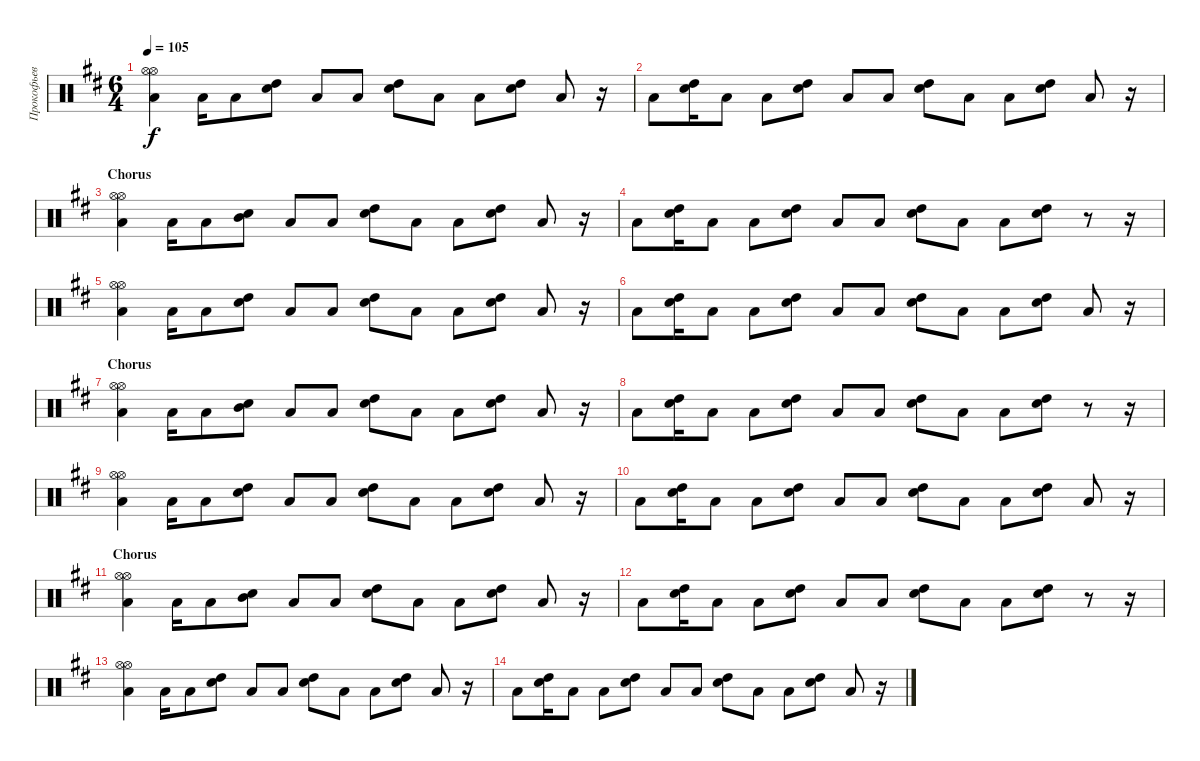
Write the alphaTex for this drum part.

\track ("Прокофьев" "Прокофьев") {instrument percussion}
\staff {score}
\articulation defaults
\ts (6 4)
\tempo 105
\clef neutral
\ks d
("Low Tom (hit)" "Hi-Hat (open)" "Hi-Hat (open)").4{dy f} "Low Tom (hit)".16 "Low Tom (hit)".8 ("High Tom (hit)" "Snare (hit) 2").8 "Low Tom (hit)".8 "Low Tom (hit)".8 ("High Tom (hit)" "Snare (hit) 2").8 "Low Tom (hit)".8 "Low Tom (hit)".8 ("High Tom (hit)" "Snare (hit) 2").8 "Low Tom (hit)".8 r.16 |
"Low Tom (hit)".8 ("High Tom (hit)" "Snare (hit) 2").16 "Low Tom (hit)".8 "Low Tom (hit)".8 ("High Tom (hit)" "Snare (hit) 2").8 "Low Tom (hit)".8 "Low Tom (hit)".8 ("High Tom (hit)" "Snare (hit) 2").8 "Low Tom (hit)".8 "Low Tom (hit)".8 ("High Tom (hit)" "Snare (hit) 2").8 "Low Tom (hit)".8 r.16 |
\section ("" "Chorus")
("Low Tom (hit)" "Hi-Hat (open)" "Hi-Hat (open)").4 "Low Tom (hit)".16 "Low Tom (hit)".8 ("Mid Tom (hit)" "Snare (hit) 2").8 "Low Tom (hit)".8 "Low Tom (hit)".8 ("High Tom (hit)" "Snare (hit) 2").8 "Low Tom (hit)".8 "Low Tom (hit)".8 ("High Tom (hit)" "Snare (hit) 2").8 "Low Tom (hit)".8 r.16 |
"Low Tom (hit)".8 ("High Tom (hit)" "Snare (hit) 2").16 "Low Tom (hit)".8 "Low Tom (hit)".8 ("High Tom (hit)" "Snare (hit) 2").8 "Low Tom (hit)".8 "Low Tom (hit)".8 ("High Tom (hit)" "Snare (hit) 2").8 "Low Tom (hit)".8 "Low Tom (hit)".8 ("High Tom (hit)" "Snare (hit) 2").8 r.8 r.16 |
("Low Tom (hit)" "Hi-Hat (open)" "Hi-Hat (open)").4 "Low Tom (hit)".16 "Low Tom (hit)".8 ("High Tom (hit)" "Snare (hit) 2").8 "Low Tom (hit)".8 "Low Tom (hit)".8 ("High Tom (hit)" "Snare (hit) 2").8 "Low Tom (hit)".8 "Low Tom (hit)".8 ("High Tom (hit)" "Snare (hit) 2").8 "Low Tom (hit)".8 r.16 |
"Low Tom (hit)".8 ("High Tom (hit)" "Snare (hit) 2").16 "Low Tom (hit)".8 "Low Tom (hit)".8 ("High Tom (hit)" "Snare (hit) 2").8 "Low Tom (hit)".8 "Low Tom (hit)".8 ("High Tom (hit)" "Snare (hit) 2").8 "Low Tom (hit)".8 "Low Tom (hit)".8 ("High Tom (hit)" "Snare (hit) 2").8 "Low Tom (hit)".8 r.16 |
\section ("" "Chorus")
("Low Tom (hit)" "Hi-Hat (open)" "Hi-Hat (open)").4 "Low Tom (hit)".16 "Low Tom (hit)".8 ("Mid Tom (hit)" "Snare (hit) 2").8 "Low Tom (hit)".8 "Low Tom (hit)".8 ("High Tom (hit)" "Snare (hit) 2").8 "Low Tom (hit)".8 "Low Tom (hit)".8 ("High Tom (hit)" "Snare (hit) 2").8 "Low Tom (hit)".8 r.16 |
"Low Tom (hit)".8 ("High Tom (hit)" "Snare (hit) 2").16 "Low Tom (hit)".8 "Low Tom (hit)".8 ("High Tom (hit)" "Snare (hit) 2").8 "Low Tom (hit)".8 "Low Tom (hit)".8 ("High Tom (hit)" "Snare (hit) 2").8 "Low Tom (hit)".8 "Low Tom (hit)".8 ("High Tom (hit)" "Snare (hit) 2").8 r.8 r.16 |
("Low Tom (hit)" "Hi-Hat (open)" "Hi-Hat (open)").4 "Low Tom (hit)".16 "Low Tom (hit)".8 ("High Tom (hit)" "Snare (hit) 2").8 "Low Tom (hit)".8 "Low Tom (hit)".8 ("High Tom (hit)" "Snare (hit) 2").8 "Low Tom (hit)".8 "Low Tom (hit)".8 ("High Tom (hit)" "Snare (hit) 2").8 "Low Tom (hit)".8 r.16 |
"Low Tom (hit)".8 ("High Tom (hit)" "Snare (hit) 2").16 "Low Tom (hit)".8 "Low Tom (hit)".8 ("High Tom (hit)" "Snare (hit) 2").8 "Low Tom (hit)".8 "Low Tom (hit)".8 ("High Tom (hit)" "Snare (hit) 2").8 "Low Tom (hit)".8 "Low Tom (hit)".8 ("High Tom (hit)" "Snare (hit) 2").8 "Low Tom (hit)".8 r.16 |
\section ("" "Chorus")
("Low Tom (hit)" "Hi-Hat (open)" "Hi-Hat (open)").4 "Low Tom (hit)".16 "Low Tom (hit)".8 ("Mid Tom (hit)" "Snare (hit) 2").8 "Low Tom (hit)".8 "Low Tom (hit)".8 ("High Tom (hit)" "Snare (hit) 2").8 "Low Tom (hit)".8 "Low Tom (hit)".8 ("High Tom (hit)" "Snare (hit) 2").8 "Low Tom (hit)".8 r.16 |
"Low Tom (hit)".8 ("High Tom (hit)" "Snare (hit) 2").16 "Low Tom (hit)".8 "Low Tom (hit)".8 ("High Tom (hit)" "Snare (hit) 2").8 "Low Tom (hit)".8 "Low Tom (hit)".8 ("High Tom (hit)" "Snare (hit) 2").8 "Low Tom (hit)".8 "Low Tom (hit)".8 ("High Tom (hit)" "Snare (hit) 2").8 r.8 r.16 |
("Low Tom (hit)" "Hi-Hat (open)" "Hi-Hat (open)").4 "Low Tom (hit)".16 "Low Tom (hit)".8 ("High Tom (hit)" "Snare (hit) 2").8 "Low Tom (hit)".8 "Low Tom (hit)".8 ("High Tom (hit)" "Snare (hit) 2").8 "Low Tom (hit)".8 "Low Tom (hit)".8 ("High Tom (hit)" "Snare (hit) 2").8 "Low Tom (hit)".8 r.16 |
"Low Tom (hit)".8 ("High Tom (hit)" "Snare (hit) 2").16 "Low Tom (hit)".8 "Low Tom (hit)".8 ("High Tom (hit)" "Snare (hit) 2").8 "Low Tom (hit)".8 "Low Tom (hit)".8 ("High Tom (hit)" "Snare (hit) 2").8 "Low Tom (hit)".8 "Low Tom (hit)".8 ("High Tom (hit)" "Snare (hit) 2").8 "Low Tom (hit)".8 r.16
